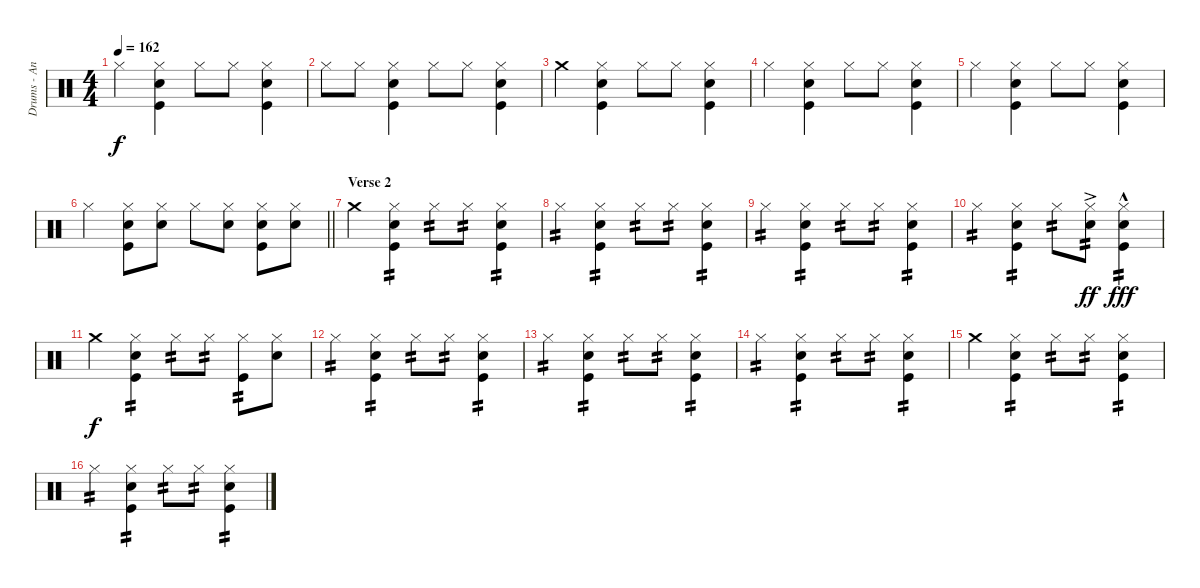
\track ("Drums - Andriushkin" "Drums - An") {instrument percussion}
\staff {score}
\articulation defaults
\ts (4 4)
\tempo 162
\clef neutral
\ks c "Hi-Hat (closed)".4{dy f}
("Hi-Hat (closed)" "Electric Snare (hit)" "Kick (hit)").4 "Hi-Hat (closed)".8 "Hi-Hat (closed)".8 ("Hi-Hat (closed)" "Electric Snare (hit)" "Kick (hit)").4 |
"Hi-Hat (closed)".8 "Hi-Hat (closed)".8 ("Hi-Hat (closed)" "Electric Snare (hit)" "Kick (hit)").4 "Hi-Hat (closed)".8 "Hi-Hat (closed)".8 ("Hi-Hat (closed)" "Electric Snare (hit)" "Kick (hit)").4 |
"Crash medium (hit)".4 ("Hi-Hat (closed)" "Electric Snare (hit)" "Kick (hit)").4 "Hi-Hat (closed)".8 "Hi-Hat (closed)".8 ("Hi-Hat (closed)" "Electric Snare (hit)" "Kick (hit)").4 |
"Hi-Hat (closed)".4 ("Hi-Hat (closed)" "Electric Snare (hit)" "Kick (hit)").4 "Hi-Hat (closed)".8 "Hi-Hat (closed)".8 ("Hi-Hat (closed)" "Electric Snare (hit)" "Kick (hit)").4 |
"Hi-Hat (closed)".4 ("Hi-Hat (closed)" "Electric Snare (hit)" "Kick (hit)").4 "Hi-Hat (closed)".8 "Hi-Hat (closed)".8 ("Hi-Hat (closed)" "Electric Snare (hit)" "Kick (hit)").4 |
\barLineRight lightlight "Hi-Hat (closed)".4
("Hi-Hat (closed)" "Electric Snare (hit)" "Kick (hit)").8 ("Hi-Hat (closed)" "Electric Snare (hit)").8 "Hi-Hat (closed)".8 ("Hi-Hat (closed)" "Electric Snare (hit)").8 ("Hi-Hat (closed)" "Electric Snare (hit)" "Kick (hit)").8 ("Hi-Hat (closed)" "Electric Snare (hit)").8 |
\section ("" "Verse 2")
"Crash medium (hit)".4 ("Hi-Hat (closed)" "Electric Snare (hit)" "Kick (hit)").4{tp 2} "Hi-Hat (closed)".8{tp 2} "Hi-Hat (closed)".8{tp 2} ("Hi-Hat (closed)" "Electric Snare (hit)" "Kick (hit)").4{tp 2} |
"Hi-Hat (closed)".4{tp 2} ("Hi-Hat (closed)" "Electric Snare (hit)" "Kick (hit)").4{tp 2} "Hi-Hat (closed)".8{tp 2} "Hi-Hat (closed)".8{tp 2} ("Hi-Hat (closed)" "Electric Snare (hit)" "Kick (hit)").4{tp 2} |
"Hi-Hat (closed)".4{tp 2} ("Hi-Hat (closed)" "Electric Snare (hit)" "Kick (hit)").4{tp 2} "Hi-Hat (closed)".8{tp 2} "Hi-Hat (closed)".8{tp 2} ("Hi-Hat (closed)" "Electric Snare (hit)" "Kick (hit)").4{tp 2} |
"Hi-Hat (closed)".4{tp 2} ("Hi-Hat (closed)" "Electric Snare (hit)" "Kick (hit)").4{tp 2} "Hi-Hat (closed)".8{tp 2} ("Hi-Hat (closed)" "Electric Snare (hit)"{ac}).8{tp 2 dy ff} ("Hi-Hat (closed)" "Electric Snare (hit)"{hac} "Kick (hit)").4{tp 2 dy fff} |
"Crash medium (hit)".4{dy f} ("Hi-Hat (closed)" "Electric Snare (hit)" "Kick (hit)").4{tp 2} "Hi-Hat (closed)".8{tp 2} "Hi-Hat (closed)".8{tp 2} ("Hi-Hat (closed)" "Kick (hit)").8{tp 2} ("Hi-Hat (closed)" "Electric Snare (hit)").8 |
"Hi-Hat (closed)".4{tp 2} ("Hi-Hat (closed)" "Electric Snare (hit)" "Kick (hit)").4{tp 2} "Hi-Hat (closed)".8{tp 2} "Hi-Hat (closed)".8{tp 2} ("Hi-Hat (closed)" "Electric Snare (hit)" "Kick (hit)").4{tp 2} |
"Hi-Hat (closed)".4{tp 2} ("Hi-Hat (closed)" "Electric Snare (hit)" "Kick (hit)").4{tp 2} "Hi-Hat (closed)".8{tp 2} "Hi-Hat (closed)".8{tp 2} ("Hi-Hat (closed)" "Electric Snare (hit)" "Kick (hit)").4{tp 2} |
"Hi-Hat (closed)".4{tp 2} ("Hi-Hat (closed)" "Electric Snare (hit)" "Kick (hit)").4{tp 2} "Hi-Hat (closed)".8{tp 2} "Hi-Hat (closed)".8{tp 2} ("Hi-Hat (closed)" "Electric Snare (hit)" "Kick (hit)").4{tp 2} |
"Crash medium (hit)".4 ("Hi-Hat (closed)" "Electric Snare (hit)" "Kick (hit)").4{tp 2} "Hi-Hat (closed)".8{tp 2} "Hi-Hat (closed)".8{tp 2} ("Hi-Hat (closed)" "Electric Snare (hit)" "Kick (hit)").4{tp 2} |
"Hi-Hat (closed)".4{tp 2} ("Hi-Hat (closed)" "Electric Snare (hit)" "Kick (hit)").4{tp 2} "Hi-Hat (closed)".8{tp 2} "Hi-Hat (closed)".8{tp 2} ("Hi-Hat (closed)" "Electric Snare (hit)" "Kick (hit)").4{tp 2}
